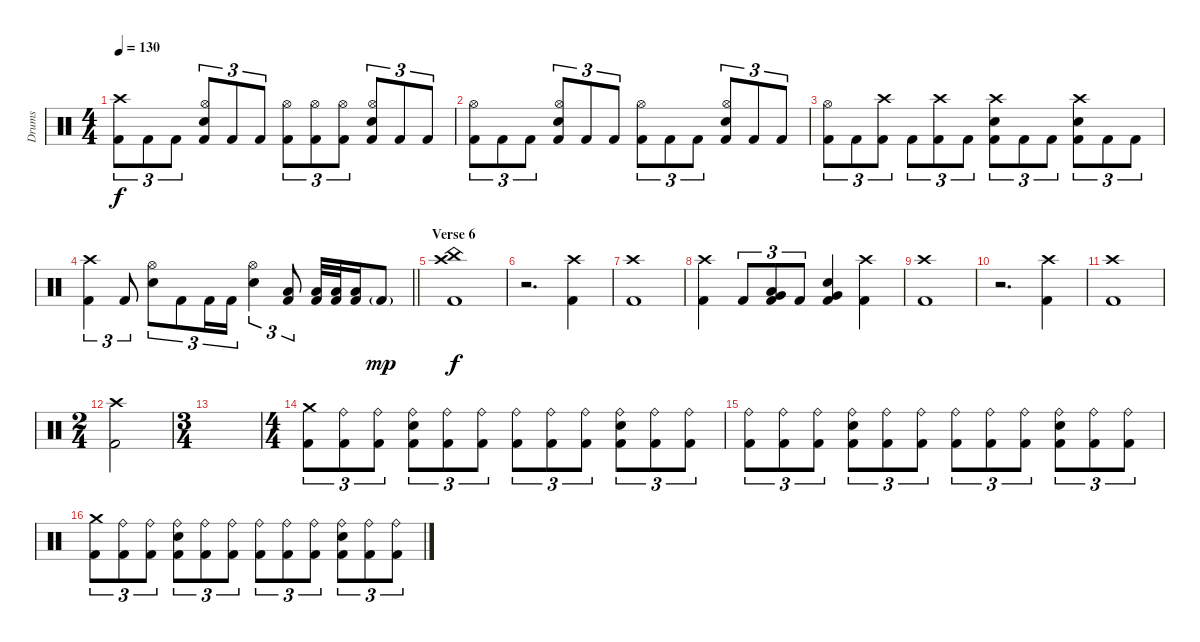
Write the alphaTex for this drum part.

\track ("Drums" "Drums") {instrument percussion}
\staff {score}
\articulation defaults
\ts (4 4)
\tempo 130
\clef neutral
\ks c
("Crash high (hit)" "Kick (hit) 2").8{tu (3 2) dy f} "Kick (hit) 2".8{tu (3 2)} "Kick (hit) 2".8{tu (3 2)} ("Hi-Hat (open)" "Electric Snare (hit)" "Kick (hit) 2").8{tu (3 2)} "Kick (hit) 2".8{tu (3 2)} "Kick (hit) 2".8{tu (3 2)} ("Hi-Hat (open)" "Kick (hit) 2").8{tu (3 2)} ("Hi-Hat (open)" "Kick (hit) 2").8{tu (3 2)} ("Hi-Hat (open)" "Kick (hit) 2").8{tu (3 2)} ("Hi-Hat (open)" "Electric Snare (hit)" "Kick (hit) 2").8{tu (3 2)} "Kick (hit) 2".8{tu (3 2)} "Kick (hit) 2".8{tu (3 2)} |
("Hi-Hat (open)" "Kick (hit) 2").8{tu (3 2)} "Kick (hit) 2".8{tu (3 2)} "Kick (hit) 2".8{tu (3 2)} ("Hi-Hat (open)" "Electric Snare (hit)" "Kick (hit) 2").8{tu (3 2)} "Kick (hit) 2".8{tu (3 2)} "Kick (hit) 2".8{tu (3 2)} ("Hi-Hat (open)" "Kick (hit) 2").8{tu (3 2)} "Kick (hit) 2".8{tu (3 2)} "Kick (hit) 2".8{tu (3 2)} ("Hi-Hat (open)" "Electric Snare (hit)" "Kick (hit) 2").8{tu (3 2)} "Kick (hit) 2".8{tu (3 2)} "Kick (hit) 2".8{tu (3 2)} |
("Hi-Hat (open)" "Kick (hit) 2").8{tu (3 2)} "Kick (hit) 2".8{tu (3 2)} ("Crash high (hit)" "Kick (hit) 2").8{tu (3 2)} "Kick (hit) 2".8{tu (3 2)} ("Crash high (hit)" "Kick (hit) 2").8{tu (3 2)} "Kick (hit) 2".8{tu (3 2)} ("Crash high (hit)" "Electric Snare (hit)" "Kick (hit) 2").8{tu (3 2)} "Kick (hit) 2".8{tu (3 2)} "Kick (hit) 2".8{tu (3 2)} ("Crash high (hit)" "Electric Snare (hit)" "Kick (hit) 2").8{tu (3 2)} "Kick (hit) 2".8{tu (3 2)} "Kick (hit) 2".8{tu (3 2)} |
\barLineRight lightlight
("Crash high (hit)" "Kick (hit) 2").4{tu (3 2)} "Kick (hit) 2".8{tu (3 2)} ("Hi-Hat (open)" "Electric Snare (hit)").8{tu (3 2)} "Kick (hit) 2".8{tu (3 2)} "Kick (hit) 2".16{tu (3 2)} "Kick (hit) 2".16{tu (3 2)} ("Hi-Hat (open)" "Electric Snare (hit)").4{tu (3 2)} ("Low Tom (hit)" "Kick (hit) 2").8{tu (3 2)} ("Low Tom (hit)" "Kick (hit) 2").32 ("Low Tom (hit)" "Kick (hit) 2").32 ("Low Tom (hit)" "Kick (hit) 2").16 "Kick (hit) 2"{g}.8{dy mp} |
\section ("" "Verse 6")
("Crash high (hit)" "China (hit)" "Kick (hit) 2").1{dy f} |
r.2{d} ("Crash high (hit)" "Kick (hit) 2").4 |
("Crash high (hit)" "Kick (hit) 2").1 |
("Crash high (hit)" "Kick (hit) 2").4 "Kick (hit) 2".8{tu (3 2)} ("Low Tom (hit)" "Very Low Tom (hit)" "Kick (hit) 2").8{tu (3 2)} "Kick (hit) 2".8{tu (3 2)} ("Very Low Tom (hit)" "Electric Snare (hit)" "Kick (hit) 2").4 ("Crash high (hit)" "Kick (hit) 2").4 |
("Crash high (hit)" "Kick (hit) 2").1 |
r.2{d} ("Crash high (hit)" "Kick (hit) 2").4 |
("Crash high (hit)" "Kick (hit) 2").1 |
\ts (2 4)
("Crash high (hit)" "Kick (hit) 2").2 |
\ts (3 4)
|
\ts (4 4)
("Crash medium (hit)" "Kick (hit) 2").8{tu (3 2)} ("Ride (bell)" "Kick (hit) 2").8{tu (3 2)} ("Ride (bell)" "Kick (hit) 2").8{tu (3 2)} ("Ride (bell)" "Electric Snare (hit)" "Kick (hit) 2").8{tu (3 2)} ("Ride (bell)" "Kick (hit) 2").8{tu (3 2)} ("Ride (bell)" "Kick (hit) 2").8{tu (3 2)} ("Ride (bell)" "Kick (hit) 2").8{tu (3 2)} ("Ride (bell)" "Kick (hit) 2").8{tu (3 2)} ("Ride (bell)" "Kick (hit) 2").8{tu (3 2)} ("Ride (bell)" "Electric Snare (hit)" "Kick (hit) 2").8{tu (3 2)} ("Ride (bell)" "Kick (hit) 2").8{tu (3 2)} ("Ride (bell)" "Kick (hit) 2").8{tu (3 2)} |
("Ride (bell)" "Kick (hit) 2").8{tu (3 2)} ("Ride (bell)" "Kick (hit) 2").8{tu (3 2)} ("Ride (bell)" "Kick (hit) 2").8{tu (3 2)} ("Ride (bell)" "Electric Snare (hit)" "Kick (hit) 2").8{tu (3 2)} ("Ride (bell)" "Kick (hit) 2").8{tu (3 2)} ("Ride (bell)" "Kick (hit) 2").8{tu (3 2)} ("Ride (bell)" "Kick (hit) 2").8{tu (3 2)} ("Ride (bell)" "Kick (hit) 2").8{tu (3 2)} ("Ride (bell)" "Kick (hit) 2").8{tu (3 2)} ("Ride (bell)" "Electric Snare (hit)" "Kick (hit) 2").8{tu (3 2)} ("Ride (bell)" "Kick (hit) 2").8{tu (3 2)} ("Ride (bell)" "Kick (hit) 2").8{tu (3 2)} |
("Crash medium (hit)" "Kick (hit) 2").8{tu (3 2)} ("Ride (bell)" "Kick (hit) 2").8{tu (3 2)} ("Ride (bell)" "Kick (hit) 2").8{tu (3 2)} ("Ride (bell)" "Electric Snare (hit)" "Kick (hit) 2").8{tu (3 2)} ("Ride (bell)" "Kick (hit) 2").8{tu (3 2)} ("Ride (bell)" "Kick (hit) 2").8{tu (3 2)} ("Ride (bell)" "Kick (hit) 2").8{tu (3 2)} ("Ride (bell)" "Kick (hit) 2").8{tu (3 2)} ("Ride (bell)" "Kick (hit) 2").8{tu (3 2)} ("Ride (bell)" "Electric Snare (hit)" "Kick (hit) 2").8{tu (3 2)} ("Ride (bell)" "Kick (hit) 2").8{tu (3 2)} ("Ride (bell)" "Kick (hit) 2").8{tu (3 2)}
